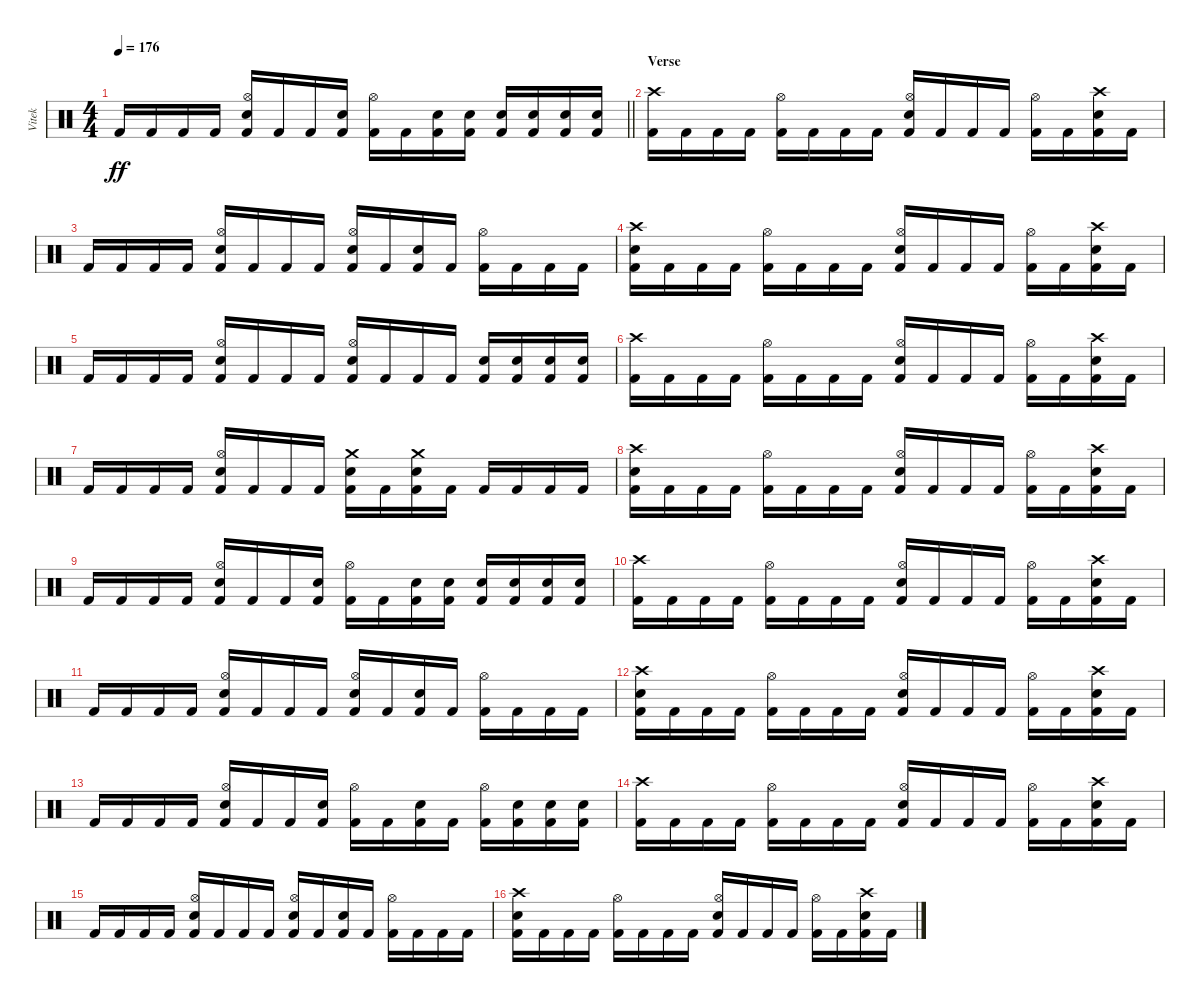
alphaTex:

\track ("Vitek" "Vitek") {instrument percussion}
\staff {score}
\articulation defaults
\ts (4 4)
\tempo 176
\clef neutral
\barLineRight lightlight
\ks c "Kick (hit) 2".16{dy ff} "Kick (hit) 2".16 "Kick (hit) 2".16 "Kick (hit) 2".16
("Hi-Hat (open)" "Electric Snare (hit)" "Kick (hit) 2").16 "Kick (hit) 2".16 "Kick (hit) 2".16 ("Electric Snare (hit)" "Kick (hit) 2").16 ("Hi-Hat (open)" "Kick (hit) 2").16 "Kick (hit) 2".16 ("Electric Snare (hit)" "Kick (hit) 2").16 ("Electric Snare (hit)" "Kick (hit) 2").16 ("Electric Snare (hit)" "Kick (hit) 2").16 ("Electric Snare (hit)" "Kick (hit) 2").16 ("Electric Snare (hit)" "Kick (hit) 2").16 ("Electric Snare (hit)" "Kick (hit) 2").16 |
\section ("" "Verse")
("Crash high (hit)" "Kick (hit) 2").16 "Kick (hit) 2".16 "Kick (hit) 2".16 "Kick (hit) 2".16 ("Hi-Hat (open)" "Kick (hit) 2").16 "Kick (hit) 2".16 "Kick (hit) 2".16 "Kick (hit) 2".16 ("Hi-Hat (open)" "Electric Snare (hit)" "Kick (hit) 2").16 "Kick (hit) 2".16 "Kick (hit) 2".16 "Kick (hit) 2".16 ("Hi-Hat (open)" "Kick (hit) 2").16 "Kick (hit) 2".16 ("Crash high (hit)" "Electric Snare (hit)" "Kick (hit) 2").16 "Kick (hit) 2".16 |
"Kick (hit) 2".16 "Kick (hit) 2".16 "Kick (hit) 2".16 "Kick (hit) 2".16 ("Hi-Hat (open)" "Electric Snare (hit)" "Kick (hit) 2").16 "Kick (hit) 2".16 "Kick (hit) 2".16 "Kick (hit) 2".16 ("Hi-Hat (open)" "Electric Snare (hit)" "Kick (hit) 2").16 "Kick (hit) 2".16 ("Electric Snare (hit)" "Kick (hit) 2").16 "Kick (hit) 2".16 ("Hi-Hat (open)" "Kick (hit) 2").16 "Kick (hit) 2".16 "Kick (hit) 2".16 "Kick (hit) 2".16 |
("Crash high (hit)" "Electric Snare (hit)" "Kick (hit) 2").16 "Kick (hit) 2".16 "Kick (hit) 2".16 "Kick (hit) 2".16 ("Hi-Hat (open)" "Kick (hit) 2").16 "Kick (hit) 2".16 "Kick (hit) 2".16 "Kick (hit) 2".16 ("Hi-Hat (open)" "Electric Snare (hit)" "Kick (hit) 2").16 "Kick (hit) 2".16 "Kick (hit) 2".16 "Kick (hit) 2".16 ("Hi-Hat (open)" "Kick (hit) 2").16 "Kick (hit) 2".16 ("Crash high (hit)" "Electric Snare (hit)" "Kick (hit) 2").16 "Kick (hit) 2".16 |
"Kick (hit) 2".16 "Kick (hit) 2".16 "Kick (hit) 2".16 "Kick (hit) 2".16 ("Hi-Hat (open)" "Electric Snare (hit)" "Kick (hit) 2").16 "Kick (hit) 2".16 "Kick (hit) 2".16 "Kick (hit) 2".16 ("Hi-Hat (open)" "Electric Snare (hit)" "Kick (hit) 2").16 "Kick (hit) 2".16 "Kick (hit) 2".16 "Kick (hit) 2".16 ("Electric Snare (hit)" "Kick (hit) 2").16 ("Electric Snare (hit)" "Kick (hit) 2").16 ("Electric Snare (hit)" "Kick (hit) 2").16 ("Electric Snare (hit)" "Kick (hit) 2").16 |
("Crash high (hit)" "Kick (hit) 2").16 "Kick (hit) 2".16 "Kick (hit) 2".16 "Kick (hit) 2".16 ("Hi-Hat (open)" "Kick (hit) 2").16 "Kick (hit) 2".16 "Kick (hit) 2".16 "Kick (hit) 2".16 ("Hi-Hat (open)" "Electric Snare (hit)" "Kick (hit) 2").16 "Kick (hit) 2".16 "Kick (hit) 2".16 "Kick (hit) 2".16 ("Hi-Hat (open)" "Kick (hit) 2").16 "Kick (hit) 2".16 ("Crash high (hit)" "Electric Snare (hit)" "Kick (hit) 2").16 "Kick (hit) 2".16 |
"Kick (hit) 2".16 "Kick (hit) 2".16 "Kick (hit) 2".16 "Kick (hit) 2".16 ("Hi-Hat (open)" "Electric Snare (hit)" "Kick (hit) 2").16 "Kick (hit) 2".16 "Kick (hit) 2".16 "Kick (hit) 2".16 ("Crash medium (hit)" "Electric Snare (hit)" "Kick (hit) 2").16 "Kick (hit) 2".16 ("Crash medium (hit)" "Electric Snare (hit)" "Kick (hit) 2").16 "Kick (hit) 2".16 "Kick (hit) 2".16 "Kick (hit) 2".16 "Kick (hit) 2".16 "Kick (hit) 2".16 |
("Crash high (hit)" "Electric Snare (hit)" "Kick (hit) 2").16 "Kick (hit) 2".16 "Kick (hit) 2".16 "Kick (hit) 2".16 ("Hi-Hat (open)" "Kick (hit) 2").16 "Kick (hit) 2".16 "Kick (hit) 2".16 "Kick (hit) 2".16 ("Hi-Hat (open)" "Electric Snare (hit)" "Kick (hit) 2").16 "Kick (hit) 2".16 "Kick (hit) 2".16 "Kick (hit) 2".16 ("Hi-Hat (open)" "Kick (hit) 2").16 "Kick (hit) 2".16 ("Crash high (hit)" "Electric Snare (hit)" "Kick (hit) 2").16 "Kick (hit) 2".16 |
"Kick (hit) 2".16 "Kick (hit) 2".16 "Kick (hit) 2".16 "Kick (hit) 2".16 ("Hi-Hat (open)" "Electric Snare (hit)" "Kick (hit) 2").16 "Kick (hit) 2".16 "Kick (hit) 2".16 ("Electric Snare (hit)" "Kick (hit) 2").16 ("Hi-Hat (open)" "Kick (hit) 2").16 "Kick (hit) 2".16 ("Electric Snare (hit)" "Kick (hit) 2").16 ("Electric Snare (hit)" "Kick (hit) 2").16 ("Electric Snare (hit)" "Kick (hit) 2").16 ("Electric Snare (hit)" "Kick (hit) 2").16 ("Electric Snare (hit)" "Kick (hit) 2").16 ("Electric Snare (hit)" "Kick (hit) 2").16 |
("Crash high (hit)" "Kick (hit) 2").16 "Kick (hit) 2".16 "Kick (hit) 2".16 "Kick (hit) 2".16 ("Hi-Hat (open)" "Kick (hit) 2").16 "Kick (hit) 2".16 "Kick (hit) 2".16 "Kick (hit) 2".16 ("Hi-Hat (open)" "Electric Snare (hit)" "Kick (hit) 2").16 "Kick (hit) 2".16 "Kick (hit) 2".16 "Kick (hit) 2".16 ("Hi-Hat (open)" "Kick (hit) 2").16 "Kick (hit) 2".16 ("Crash high (hit)" "Electric Snare (hit)" "Kick (hit) 2").16 "Kick (hit) 2".16 |
"Kick (hit) 2".16 "Kick (hit) 2".16 "Kick (hit) 2".16 "Kick (hit) 2".16 ("Hi-Hat (open)" "Electric Snare (hit)" "Kick (hit) 2").16 "Kick (hit) 2".16 "Kick (hit) 2".16 "Kick (hit) 2".16 ("Hi-Hat (open)" "Electric Snare (hit)" "Kick (hit) 2").16 "Kick (hit) 2".16 ("Electric Snare (hit)" "Kick (hit) 2").16 "Kick (hit) 2".16 ("Hi-Hat (open)" "Kick (hit) 2").16 "Kick (hit) 2".16 "Kick (hit) 2".16 "Kick (hit) 2".16 |
("Crash high (hit)" "Electric Snare (hit)" "Kick (hit) 2").16 "Kick (hit) 2".16 "Kick (hit) 2".16 "Kick (hit) 2".16 ("Hi-Hat (open)" "Kick (hit) 2").16 "Kick (hit) 2".16 "Kick (hit) 2".16 "Kick (hit) 2".16 ("Hi-Hat (open)" "Electric Snare (hit)" "Kick (hit) 2").16 "Kick (hit) 2".16 "Kick (hit) 2".16 "Kick (hit) 2".16 ("Hi-Hat (open)" "Kick (hit) 2").16 "Kick (hit) 2".16 ("Crash high (hit)" "Electric Snare (hit)" "Kick (hit) 2").16 "Kick (hit) 2".16 |
"Kick (hit) 2".16 "Kick (hit) 2".16 "Kick (hit) 2".16 "Kick (hit) 2".16 ("Hi-Hat (open)" "Electric Snare (hit)" "Kick (hit) 2").16 "Kick (hit) 2".16 "Kick (hit) 2".16 ("Electric Snare (hit)" "Kick (hit) 2").16 ("Hi-Hat (open)" "Kick (hit) 2").16 "Kick (hit) 2".16 ("Electric Snare (hit)" "Kick (hit) 2").16 "Kick (hit) 2".16 ("Hi-Hat (open)" "Kick (hit) 2").16 ("Electric Snare (hit)" "Kick (hit) 2").16 ("Electric Snare (hit)" "Kick (hit) 2").16 ("Electric Snare (hit)" "Kick (hit) 2").16 |
("Crash high (hit)" "Kick (hit) 2").16 "Kick (hit) 2".16 "Kick (hit) 2".16 "Kick (hit) 2".16 ("Hi-Hat (open)" "Kick (hit) 2").16 "Kick (hit) 2".16 "Kick (hit) 2".16 "Kick (hit) 2".16 ("Hi-Hat (open)" "Electric Snare (hit)" "Kick (hit) 2").16 "Kick (hit) 2".16 "Kick (hit) 2".16 "Kick (hit) 2".16 ("Hi-Hat (open)" "Kick (hit) 2").16 "Kick (hit) 2".16 ("Crash high (hit)" "Electric Snare (hit)" "Kick (hit) 2").16 "Kick (hit) 2".16 |
"Kick (hit) 2".16 "Kick (hit) 2".16 "Kick (hit) 2".16 "Kick (hit) 2".16 ("Hi-Hat (open)" "Electric Snare (hit)" "Kick (hit) 2").16 "Kick (hit) 2".16 "Kick (hit) 2".16 "Kick (hit) 2".16 ("Hi-Hat (open)" "Electric Snare (hit)" "Kick (hit) 2").16 "Kick (hit) 2".16 ("Electric Snare (hit)" "Kick (hit) 2").16 "Kick (hit) 2".16 ("Hi-Hat (open)" "Kick (hit) 2").16 "Kick (hit) 2".16 "Kick (hit) 2".16 "Kick (hit) 2".16 |
("Crash high (hit)" "Electric Snare (hit)" "Kick (hit) 2").16 "Kick (hit) 2".16 "Kick (hit) 2".16 "Kick (hit) 2".16 ("Hi-Hat (open)" "Kick (hit) 2").16 "Kick (hit) 2".16 "Kick (hit) 2".16 "Kick (hit) 2".16 ("Hi-Hat (open)" "Electric Snare (hit)" "Kick (hit) 2").16 "Kick (hit) 2".16 "Kick (hit) 2".16 "Kick (hit) 2".16 ("Hi-Hat (open)" "Kick (hit) 2").16 "Kick (hit) 2".16 ("Crash high (hit)" "Electric Snare (hit)" "Kick (hit) 2").16 "Kick (hit) 2".16
